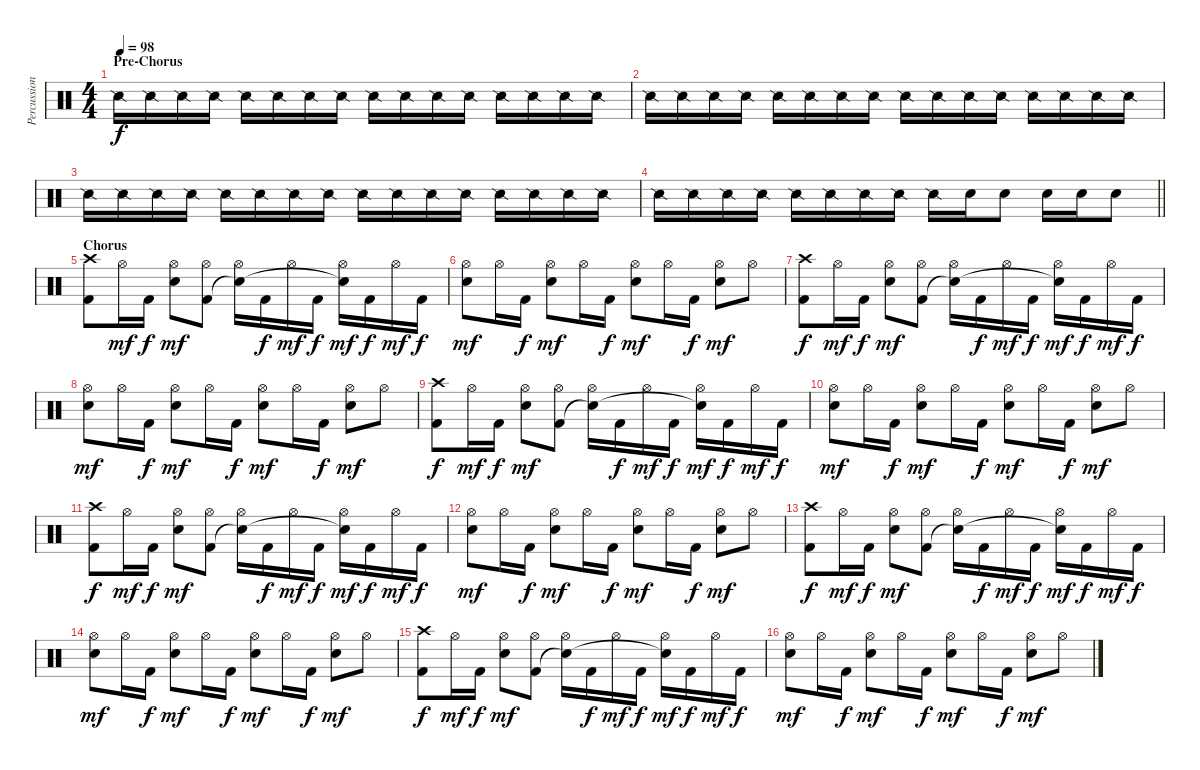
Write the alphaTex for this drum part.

\track ("Percussion" "Percussion") {instrument percussion}
\staff {score}
\articulation defaults
\ts (4 4)
\section ("" "Pre-Chorus")
\tempo 98
\clef neutral
\ks c "Snare (side stick) 2".16{dy f} "Snare (side stick) 2".16 "Snare (side stick) 2".16 "Snare (side stick) 2".16 "Snare (side stick) 2".16 "Snare (side stick) 2".16 "Snare (side stick) 2".16 "Snare (side stick) 2".16 "Snare (side stick) 2".16 "Snare (side stick) 2".16 "Snare (side stick) 2".16 "Snare (side stick) 2".16 "Snare (side stick) 2".16 "Snare (side stick) 2".16 "Snare (side stick) 2".16 "Snare (side stick) 2".16
|
"Snare (side stick) 2".16 "Snare (side stick) 2".16 "Snare (side stick) 2".16 "Snare (side stick) 2".16 "Snare (side stick) 2".16 "Snare (side stick) 2".16 "Snare (side stick) 2".16 "Snare (side stick) 2".16 "Snare (side stick) 2".16 "Snare (side stick) 2".16 "Snare (side stick) 2".16 "Snare (side stick) 2".16 "Snare (side stick) 2".16 "Snare (side stick) 2".16 "Snare (side stick) 2".16 "Snare (side stick) 2".16 |
"Snare (side stick) 2".16 "Snare (side stick) 2".16 "Snare (side stick) 2".16 "Snare (side stick) 2".16 "Snare (side stick) 2".16 "Snare (side stick) 2".16 "Snare (side stick) 2".16 "Snare (side stick) 2".16 "Snare (side stick) 2".16 "Snare (side stick) 2".16 "Snare (side stick) 2".16 "Snare (side stick) 2".16 "Snare (side stick) 2".16 "Snare (side stick) 2".16 "Snare (side stick) 2".16 "Snare (side stick) 2".16 |
\barLineRight lightlight "Snare (side stick) 2".16 "Snare (side stick) 2".16 "Snare (side stick) 2".16 "Snare (side stick) 2".16 "Snare (side stick) 2".16 "Snare (side stick) 2".16 "Snare (side stick) 2".16 "Snare (side stick) 2".16 "Snare (side stick) 2".16 "Electric Snare (hit)".16 "Electric Snare (hit)".8 "Electric Snare (hit)".16 "Electric Snare (hit)".16 "Electric Snare (hit)".8
|
\section ("" "Chorus")
("Crash high (hit)" "Kick (hit) 2").8 "Hi-Hat (open)".16{dy mf} "Kick (hit) 2".16{dy f} ("Hi-Hat (open)" "Electric Snare (hit)").8{dy mf} ("Hi-Hat (open)" "Kick (hit) 2").8 ("Hi-Hat (open)" "Snare (hit)"{t}).16 "Kick (hit) 2".16{dy f} "Hi-Hat (open)".16{dy mf} "Kick (hit) 2".16{dy f} ("Hi-Hat (open)" "Snare (hit)"{t}).16{dy mf} "Kick (hit) 2".16{dy f} "Hi-Hat (open)".16{dy mf} "Kick (hit) 2".16{dy f} |
("Hi-Hat (open)" "Electric Snare (hit)").8{dy mf} "Hi-Hat (open)".16 "Kick (hit) 2".16{dy f} ("Hi-Hat (open)" "Electric Snare (hit)").8{dy mf} "Hi-Hat (open)".16 "Kick (hit) 2".16{dy f} ("Hi-Hat (open)" "Electric Snare (hit)").8{dy mf} "Hi-Hat (open)".16 "Kick (hit) 2".16{dy f} ("Hi-Hat (open)" "Electric Snare (hit)").8{dy mf} "Hi-Hat (open)".8 |
("Crash high (hit)" "Kick (hit) 2").8{dy f} "Hi-Hat (open)".16{dy mf} "Kick (hit) 2".16{dy f} ("Hi-Hat (open)" "Electric Snare (hit)").8{dy mf} ("Hi-Hat (open)" "Kick (hit) 2").8 ("Hi-Hat (open)" "Snare (hit)"{t}).16 "Kick (hit) 2".16{dy f} "Hi-Hat (open)".16{dy mf} "Kick (hit) 2".16{dy f} ("Hi-Hat (open)" "Snare (hit)"{t}).16{dy mf} "Kick (hit) 2".16{dy f} "Hi-Hat (open)".16{dy mf} "Kick (hit) 2".16{dy f} |
("Hi-Hat (open)" "Electric Snare (hit)").8{dy mf} "Hi-Hat (open)".16 "Kick (hit) 2".16{dy f} ("Hi-Hat (open)" "Electric Snare (hit)").8{dy mf} "Hi-Hat (open)".16 "Kick (hit) 2".16{dy f} ("Hi-Hat (open)" "Electric Snare (hit)").8{dy mf} "Hi-Hat (open)".16 "Kick (hit) 2".16{dy f} ("Hi-Hat (open)" "Electric Snare (hit)").8{dy mf} "Hi-Hat (open)".8 |
("Crash high (hit)" "Kick (hit) 2").8{dy f} "Hi-Hat (open)".16{dy mf} "Kick (hit) 2".16{dy f} ("Hi-Hat (open)" "Electric Snare (hit)").8{dy mf} ("Hi-Hat (open)" "Kick (hit) 2").8 ("Hi-Hat (open)" "Snare (hit)"{t}).16 "Kick (hit) 2".16{dy f} "Hi-Hat (open)".16{dy mf} "Kick (hit) 2".16{dy f} ("Hi-Hat (open)" "Snare (hit)"{t}).16{dy mf} "Kick (hit) 2".16{dy f} "Hi-Hat (open)".16{dy mf} "Kick (hit) 2".16{dy f} |
("Hi-Hat (open)" "Electric Snare (hit)").8{dy mf} "Hi-Hat (open)".16 "Kick (hit) 2".16{dy f} ("Hi-Hat (open)" "Electric Snare (hit)").8{dy mf} "Hi-Hat (open)".16 "Kick (hit) 2".16{dy f} ("Hi-Hat (open)" "Electric Snare (hit)").8{dy mf} "Hi-Hat (open)".16 "Kick (hit) 2".16{dy f} ("Hi-Hat (open)" "Electric Snare (hit)").8{dy mf} "Hi-Hat (open)".8 |
("Crash high (hit)" "Kick (hit) 2").8{dy f} "Hi-Hat (open)".16{dy mf} "Kick (hit) 2".16{dy f} ("Hi-Hat (open)" "Electric Snare (hit)").8{dy mf} ("Hi-Hat (open)" "Kick (hit) 2").8 ("Hi-Hat (open)" "Snare (hit)"{t}).16 "Kick (hit) 2".16{dy f} "Hi-Hat (open)".16{dy mf} "Kick (hit) 2".16{dy f} ("Hi-Hat (open)" "Snare (hit)"{t}).16{dy mf} "Kick (hit) 2".16{dy f} "Hi-Hat (open)".16{dy mf} "Kick (hit) 2".16{dy f} |
("Hi-Hat (open)" "Electric Snare (hit)").8{dy mf} "Hi-Hat (open)".16 "Kick (hit) 2".16{dy f} ("Hi-Hat (open)" "Electric Snare (hit)").8{dy mf} "Hi-Hat (open)".16 "Kick (hit) 2".16{dy f} ("Hi-Hat (open)" "Electric Snare (hit)").8{dy mf} "Hi-Hat (open)".16 "Kick (hit) 2".16{dy f} ("Hi-Hat (open)" "Electric Snare (hit)").8{dy mf} "Hi-Hat (open)".8 |
("Crash high (hit)" "Kick (hit) 2").8{dy f} "Hi-Hat (open)".16{dy mf} "Kick (hit) 2".16{dy f} ("Hi-Hat (open)" "Electric Snare (hit)").8{dy mf} ("Hi-Hat (open)" "Kick (hit) 2").8 ("Hi-Hat (open)" "Snare (hit)"{t}).16 "Kick (hit) 2".16{dy f} "Hi-Hat (open)".16{dy mf} "Kick (hit) 2".16{dy f} ("Hi-Hat (open)" "Snare (hit)"{t}).16{dy mf} "Kick (hit) 2".16{dy f} "Hi-Hat (open)".16{dy mf} "Kick (hit) 2".16{dy f} |
("Hi-Hat (open)" "Electric Snare (hit)").8{dy mf} "Hi-Hat (open)".16 "Kick (hit) 2".16{dy f} ("Hi-Hat (open)" "Electric Snare (hit)").8{dy mf} "Hi-Hat (open)".16 "Kick (hit) 2".16{dy f} ("Hi-Hat (open)" "Electric Snare (hit)").8{dy mf} "Hi-Hat (open)".16 "Kick (hit) 2".16{dy f} ("Hi-Hat (open)" "Electric Snare (hit)").8{dy mf} "Hi-Hat (open)".8 |
("Crash high (hit)" "Kick (hit) 2").8{dy f} "Hi-Hat (open)".16{dy mf} "Kick (hit) 2".16{dy f} ("Hi-Hat (open)" "Electric Snare (hit)").8{dy mf} ("Hi-Hat (open)" "Kick (hit) 2").8 ("Hi-Hat (open)" "Snare (hit)"{t}).16 "Kick (hit) 2".16{dy f} "Hi-Hat (open)".16{dy mf} "Kick (hit) 2".16{dy f} ("Hi-Hat (open)" "Snare (hit)"{t}).16{dy mf} "Kick (hit) 2".16{dy f} "Hi-Hat (open)".16{dy mf} "Kick (hit) 2".16{dy f} |
("Hi-Hat (open)" "Electric Snare (hit)").8{dy mf} "Hi-Hat (open)".16 "Kick (hit) 2".16{dy f} ("Hi-Hat (open)" "Electric Snare (hit)").8{dy mf} "Hi-Hat (open)".16 "Kick (hit) 2".16{dy f} ("Hi-Hat (open)" "Electric Snare (hit)").8{dy mf} "Hi-Hat (open)".16 "Kick (hit) 2".16{dy f} ("Hi-Hat (open)" "Electric Snare (hit)").8{dy mf} "Hi-Hat (open)".8
